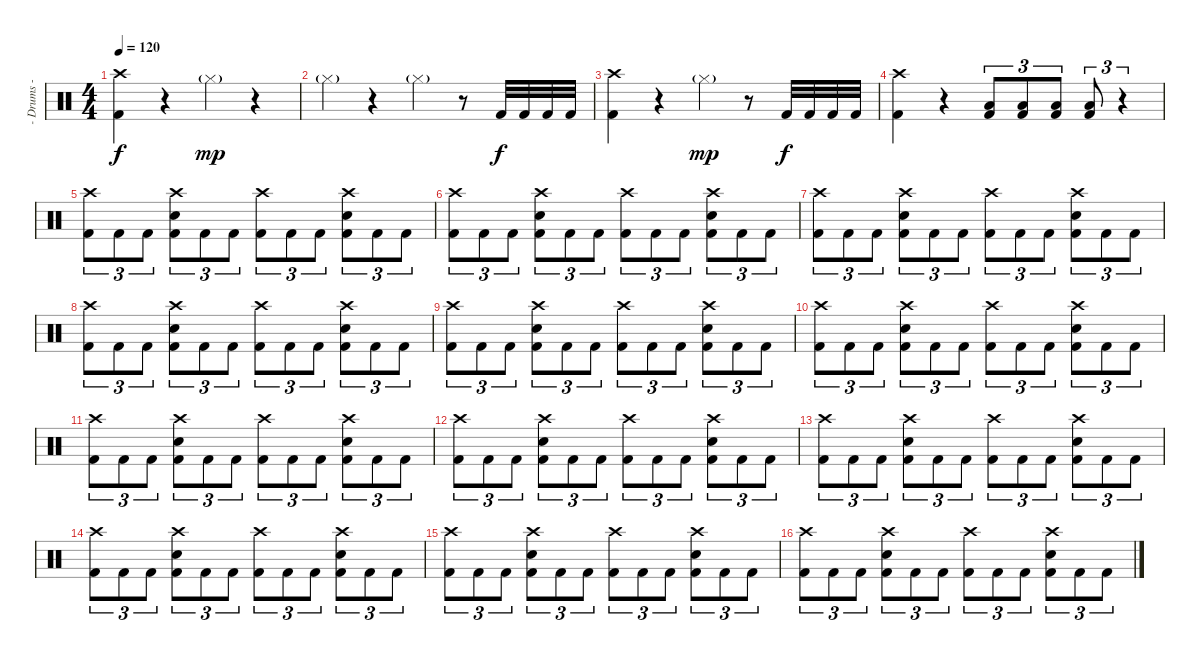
\track ("- Drums -" "- Drums -") {instrument percussion}
\staff {score}
\articulation defaults
\ts (4 4)
\tempo 120
\clef neutral
\ks c
("Crash high (hit)" "Kick (hit) 2").4{dy f} r.4 "Hi-Hat (closed)"{g}.4{dy mp} r.4 |
"Hi-Hat (closed)"{g}.4 r.4 "Hi-Hat (closed)"{g}.4 r.8 "Kick (hit) 2".32{dy f} "Kick (hit) 2".32 "Kick (hit) 2".32 "Kick (hit) 2".32 |
("Crash high (hit)" "Kick (hit) 2").4 r.4 "Hi-Hat (closed)"{g}.4{dy mp} r.8 "Kick (hit) 2".32{dy f} "Kick (hit) 2".32 "Kick (hit) 2".32 "Kick (hit) 2".32 |
("Crash high (hit)" "Kick (hit) 2").4 r.4 ("Low Tom (hit)" "Kick (hit) 2").8{tu (3 2)} ("Low Tom (hit)" "Kick (hit) 2").8{tu (3 2)} ("Low Tom (hit)" "Kick (hit) 2").8{tu (3 2)} ("Low Tom (hit)" "Kick (hit) 2").8{tu (3 2)} r.4{tu (3 2)} |
("Crash high (hit)" "Kick (hit) 2").8{tu (3 2)} "Kick (hit) 2".8{tu (3 2)} "Kick (hit) 2".8{tu (3 2)} ("Crash high (hit)" "Electric Snare (hit)" "Kick (hit) 2").8{tu (3 2)} "Kick (hit) 2".8{tu (3 2)} "Kick (hit) 2".8{tu (3 2)} ("Crash high (hit)" "Kick (hit) 2").8{tu (3 2)} "Kick (hit) 2".8{tu (3 2)} "Kick (hit) 2".8{tu (3 2)} ("Crash high (hit)" "Electric Snare (hit)" "Kick (hit) 2").8{tu (3 2)} "Kick (hit) 2".8{tu (3 2)} "Kick (hit) 2".8{tu (3 2)} |
("Crash high (hit)" "Kick (hit) 2").8{tu (3 2)} "Kick (hit) 2".8{tu (3 2)} "Kick (hit) 2".8{tu (3 2)} ("Crash high (hit)" "Electric Snare (hit)" "Kick (hit) 2").8{tu (3 2)} "Kick (hit) 2".8{tu (3 2)} "Kick (hit) 2".8{tu (3 2)} ("Crash high (hit)" "Kick (hit) 2").8{tu (3 2)} "Kick (hit) 2".8{tu (3 2)} "Kick (hit) 2".8{tu (3 2)} ("Crash high (hit)" "Electric Snare (hit)" "Kick (hit) 2").8{tu (3 2)} "Kick (hit) 2".8{tu (3 2)} "Kick (hit) 2".8{tu (3 2)} |
("Crash high (hit)" "Kick (hit) 2").8{tu (3 2)} "Kick (hit) 2".8{tu (3 2)} "Kick (hit) 2".8{tu (3 2)} ("Crash high (hit)" "Electric Snare (hit)" "Kick (hit) 2").8{tu (3 2)} "Kick (hit) 2".8{tu (3 2)} "Kick (hit) 2".8{tu (3 2)} ("Crash high (hit)" "Kick (hit) 2").8{tu (3 2)} "Kick (hit) 2".8{tu (3 2)} "Kick (hit) 2".8{tu (3 2)} ("Crash high (hit)" "Electric Snare (hit)" "Kick (hit) 2").8{tu (3 2)} "Kick (hit) 2".8{tu (3 2)} "Kick (hit) 2".8{tu (3 2)} |
("Crash high (hit)" "Kick (hit) 2").8{tu (3 2)} "Kick (hit) 2".8{tu (3 2)} "Kick (hit) 2".8{tu (3 2)} ("Crash high (hit)" "Electric Snare (hit)" "Kick (hit) 2").8{tu (3 2)} "Kick (hit) 2".8{tu (3 2)} "Kick (hit) 2".8{tu (3 2)} ("Crash high (hit)" "Kick (hit) 2").8{tu (3 2)} "Kick (hit) 2".8{tu (3 2)} "Kick (hit) 2".8{tu (3 2)} ("Crash high (hit)" "Electric Snare (hit)" "Kick (hit) 2").8{tu (3 2)} "Kick (hit) 2".8{tu (3 2)} "Kick (hit) 2".8{tu (3 2)} |
("Crash high (hit)" "Kick (hit) 2").8{tu (3 2)} "Kick (hit) 2".8{tu (3 2)} "Kick (hit) 2".8{tu (3 2)} ("Crash high (hit)" "Electric Snare (hit)" "Kick (hit) 2").8{tu (3 2)} "Kick (hit) 2".8{tu (3 2)} "Kick (hit) 2".8{tu (3 2)} ("Crash high (hit)" "Kick (hit) 2").8{tu (3 2)} "Kick (hit) 2".8{tu (3 2)} "Kick (hit) 2".8{tu (3 2)} ("Crash high (hit)" "Electric Snare (hit)" "Kick (hit) 2").8{tu (3 2)} "Kick (hit) 2".8{tu (3 2)} "Kick (hit) 2".8{tu (3 2)} |
("Crash high (hit)" "Kick (hit) 2").8{tu (3 2)} "Kick (hit) 2".8{tu (3 2)} "Kick (hit) 2".8{tu (3 2)} ("Crash high (hit)" "Electric Snare (hit)" "Kick (hit) 2").8{tu (3 2)} "Kick (hit) 2".8{tu (3 2)} "Kick (hit) 2".8{tu (3 2)} ("Crash high (hit)" "Kick (hit) 2").8{tu (3 2)} "Kick (hit) 2".8{tu (3 2)} "Kick (hit) 2".8{tu (3 2)} ("Crash high (hit)" "Electric Snare (hit)" "Kick (hit) 2").8{tu (3 2)} "Kick (hit) 2".8{tu (3 2)} "Kick (hit) 2".8{tu (3 2)} |
("Crash high (hit)" "Kick (hit) 2").8{tu (3 2)} "Kick (hit) 2".8{tu (3 2)} "Kick (hit) 2".8{tu (3 2)} ("Crash high (hit)" "Electric Snare (hit)" "Kick (hit) 2").8{tu (3 2)} "Kick (hit) 2".8{tu (3 2)} "Kick (hit) 2".8{tu (3 2)} ("Crash high (hit)" "Kick (hit) 2").8{tu (3 2)} "Kick (hit) 2".8{tu (3 2)} "Kick (hit) 2".8{tu (3 2)} ("Crash high (hit)" "Electric Snare (hit)" "Kick (hit) 2").8{tu (3 2)} "Kick (hit) 2".8{tu (3 2)} "Kick (hit) 2".8{tu (3 2)} |
("Crash high (hit)" "Kick (hit) 2").8{tu (3 2)} "Kick (hit) 2".8{tu (3 2)} "Kick (hit) 2".8{tu (3 2)} ("Crash high (hit)" "Electric Snare (hit)" "Kick (hit) 2").8{tu (3 2)} "Kick (hit) 2".8{tu (3 2)} "Kick (hit) 2".8{tu (3 2)} ("Crash high (hit)" "Kick (hit) 2").8{tu (3 2)} "Kick (hit) 2".8{tu (3 2)} "Kick (hit) 2".8{tu (3 2)} ("Crash high (hit)" "Electric Snare (hit)" "Kick (hit) 2").8{tu (3 2)} "Kick (hit) 2".8{tu (3 2)} "Kick (hit) 2".8{tu (3 2)} |
("Crash high (hit)" "Kick (hit) 2").8{tu (3 2)} "Kick (hit) 2".8{tu (3 2)} "Kick (hit) 2".8{tu (3 2)} ("Crash high (hit)" "Electric Snare (hit)" "Kick (hit) 2").8{tu (3 2)} "Kick (hit) 2".8{tu (3 2)} "Kick (hit) 2".8{tu (3 2)} ("Crash high (hit)" "Kick (hit) 2").8{tu (3 2)} "Kick (hit) 2".8{tu (3 2)} "Kick (hit) 2".8{tu (3 2)} ("Crash high (hit)" "Electric Snare (hit)" "Kick (hit) 2").8{tu (3 2)} "Kick (hit) 2".8{tu (3 2)} "Kick (hit) 2".8{tu (3 2)} |
("Crash high (hit)" "Kick (hit) 2").8{tu (3 2)} "Kick (hit) 2".8{tu (3 2)} "Kick (hit) 2".8{tu (3 2)} ("Crash high (hit)" "Electric Snare (hit)" "Kick (hit) 2").8{tu (3 2)} "Kick (hit) 2".8{tu (3 2)} "Kick (hit) 2".8{tu (3 2)} ("Crash high (hit)" "Kick (hit) 2").8{tu (3 2)} "Kick (hit) 2".8{tu (3 2)} "Kick (hit) 2".8{tu (3 2)} ("Crash high (hit)" "Electric Snare (hit)" "Kick (hit) 2").8{tu (3 2)} "Kick (hit) 2".8{tu (3 2)} "Kick (hit) 2".8{tu (3 2)} |
("Crash high (hit)" "Kick (hit) 2").8{tu (3 2)} "Kick (hit) 2".8{tu (3 2)} "Kick (hit) 2".8{tu (3 2)} ("Crash high (hit)" "Electric Snare (hit)" "Kick (hit) 2").8{tu (3 2)} "Kick (hit) 2".8{tu (3 2)} "Kick (hit) 2".8{tu (3 2)} ("Crash high (hit)" "Kick (hit) 2").8{tu (3 2)} "Kick (hit) 2".8{tu (3 2)} "Kick (hit) 2".8{tu (3 2)} ("Crash high (hit)" "Electric Snare (hit)" "Kick (hit) 2").8{tu (3 2)} "Kick (hit) 2".8{tu (3 2)} "Kick (hit) 2".8{tu (3 2)} |
("Crash high (hit)" "Kick (hit) 2").8{tu (3 2)} "Kick (hit) 2".8{tu (3 2)} "Kick (hit) 2".8{tu (3 2)} ("Crash high (hit)" "Electric Snare (hit)" "Kick (hit) 2").8{tu (3 2)} "Kick (hit) 2".8{tu (3 2)} "Kick (hit) 2".8{tu (3 2)} ("Crash high (hit)" "Kick (hit) 2").8{tu (3 2)} "Kick (hit) 2".8{tu (3 2)} "Kick (hit) 2".8{tu (3 2)} ("Crash high (hit)" "Electric Snare (hit)" "Kick (hit) 2").8{tu (3 2)} "Kick (hit) 2".8{tu (3 2)} "Kick (hit) 2".8{tu (3 2)}
